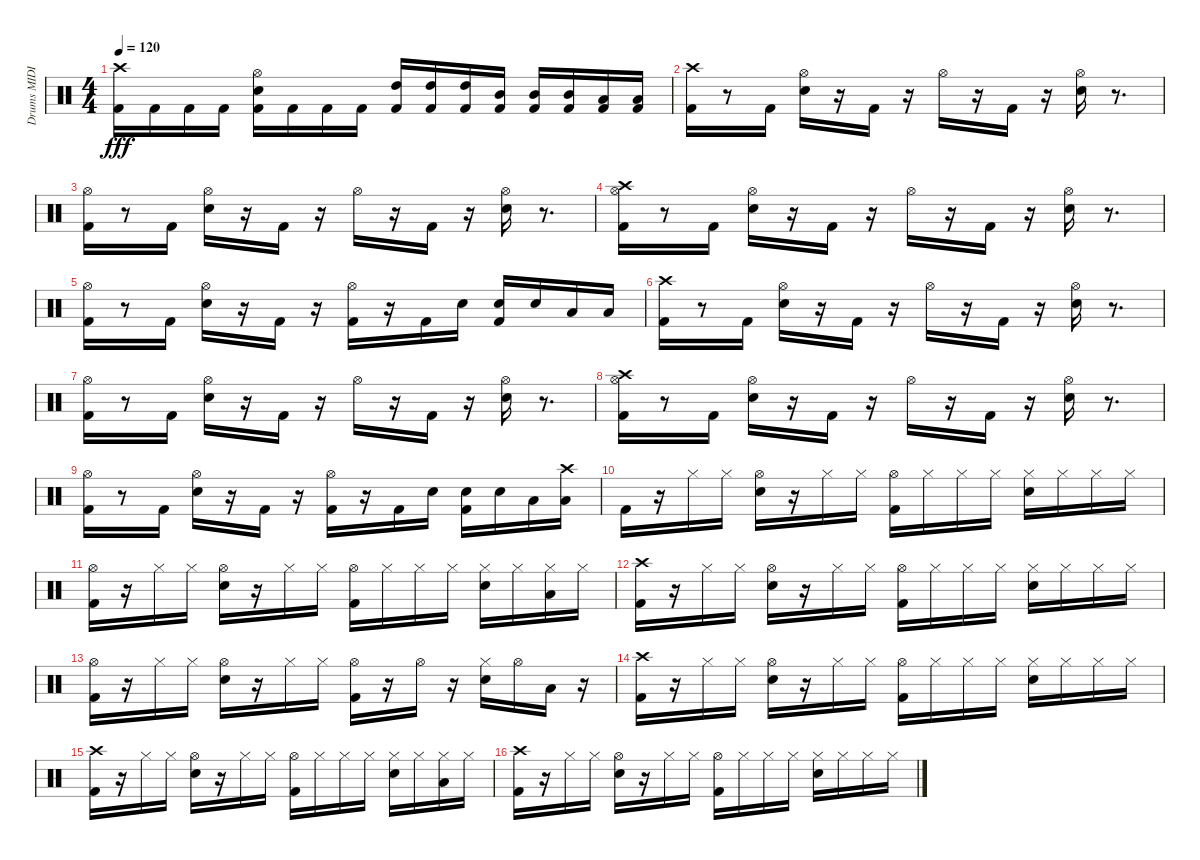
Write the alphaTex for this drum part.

\track ("Drums MIDI" "Drums MIDI") {instrument percussion}
\staff {score}
\articulation defaults
\ts (4 4)
\tempo 120
\clef neutral
\ks c
("Kick (hit) 2" "Crash high (hit)").16{dy fff} "Kick (hit) 2".16 "Kick (hit) 2".16 "Kick (hit) 2".16 ("Kick (hit) 2" "Snare (hit) 2" "Hi-Hat (open)").16 "Kick (hit) 2".16 "Kick (hit) 2".16 "Kick (hit) 2".16 ("Kick (hit) 2" "High Tom (hit)").16 ("Kick (hit) 2" "High Tom (hit)").16 ("Kick (hit) 2" "High Tom (hit)").16 ("Kick (hit) 2" "Mid Tom (hit)").16 ("Kick (hit) 2" "Mid Tom (hit)").16 ("Kick (hit) 2" "Mid Tom (hit)").16 ("Kick (hit) 2" "Low Tom (hit)").16 ("Kick (hit) 2" "Low Tom (hit)").16 |
("Kick (hit) 2" "Crash high (hit)").16 r.8 "Kick (hit) 2".16 ("Snare (hit) 2" "Hi-Hat (open)").16 r.16 "Kick (hit) 2".16 r.16 "Hi-Hat (open)".16 r.16 "Kick (hit) 2".16 r.16 ("Snare (hit) 2" "Hi-Hat (open)").16 r.8{d} |
("Kick (hit) 2" "Hi-Hat (open)").16 r.8 "Kick (hit) 2".16 ("Snare (hit) 2" "Hi-Hat (open)").16 r.16 "Kick (hit) 2".16 r.16 "Hi-Hat (open)".16 r.16 "Kick (hit) 2".16 r.16 ("Snare (hit) 2" "Hi-Hat (open)").16 r.8{d} |
("Kick (hit) 2" "Hi-Hat (open)" "Crash high (hit)").16 r.8 "Kick (hit) 2".16 ("Snare (hit) 2" "Hi-Hat (open)").16 r.16 "Kick (hit) 2".16 r.16 "Hi-Hat (open)".16 r.16 "Kick (hit) 2".16 r.16 ("Snare (hit) 2" "Hi-Hat (open)").16 r.8{d} |
("Kick (hit) 2" "Hi-Hat (open)").16 r.8 "Kick (hit) 2".16 ("Snare (hit) 2" "Hi-Hat (open)").16 r.16 "Kick (hit) 2".16 r.16 ("Kick (hit) 2" "Hi-Hat (open)").16 r.16 "Kick (hit) 2".16 "Snare (hit) 2".16 ("Kick (hit) 2" "Snare (hit) 2").16 "Snare (hit) 2".16 "Low Tom (hit)".16 "Low Tom (hit)".16 |
("Kick (hit) 2" "Crash high (hit)").16 r.8 "Kick (hit) 2".16 ("Snare (hit) 2" "Hi-Hat (open)").16 r.16 "Kick (hit) 2".16 r.16 "Hi-Hat (open)".16 r.16 "Kick (hit) 2".16 r.16 ("Snare (hit) 2" "Hi-Hat (open)").16 r.8{d} |
("Kick (hit) 2" "Hi-Hat (open)").16 r.8 "Kick (hit) 2".16 ("Snare (hit) 2" "Hi-Hat (open)").16 r.16 "Kick (hit) 2".16 r.16 "Hi-Hat (open)".16 r.16 "Kick (hit) 2".16 r.16 ("Snare (hit) 2" "Hi-Hat (open)").16 r.8{d} |
("Kick (hit) 2" "Hi-Hat (open)" "Crash high (hit)").16 r.8 "Kick (hit) 2".16 ("Snare (hit) 2" "Hi-Hat (open)").16 r.16 "Kick (hit) 2".16 r.16 "Hi-Hat (open)".16 r.16 "Kick (hit) 2".16 r.16 ("Snare (hit) 2" "Hi-Hat (open)").16 r.8{d} |
("Kick (hit) 2" "Hi-Hat (open)").16 r.8 "Kick (hit) 2".16 ("Snare (hit) 2" "Hi-Hat (open)").16 r.16 "Kick (hit) 2".16 r.16 ("Kick (hit) 2" "Hi-Hat (open)").16 r.16 "Kick (hit) 2".16 "Snare (hit) 2".16 ("Kick (hit) 2" "Snare (hit) 2").16 "Snare (hit) 2".16 "Low Tom (hit)".16 ("Low Tom (hit)" "Crash high (hit)").16 |
"Kick (hit) 2".16 r.16 "Hi-Hat (closed)".16 "Hi-Hat (closed)".16 ("Snare (hit) 2" "Hi-Hat (open)").16 r.16 "Hi-Hat (closed)".16 "Hi-Hat (closed)".16 ("Kick (hit) 2" "Hi-Hat (open)").16 "Hi-Hat (closed)".16 "Hi-Hat (closed)".16 "Hi-Hat (closed)".16 ("Snare (hit) 2" "Hi-Hat (closed)").16 "Hi-Hat (closed)".16 "Hi-Hat (closed)".16 "Hi-Hat (closed)".16 |
("Kick (hit) 2" "Hi-Hat (open)").16 r.16 "Hi-Hat (closed)".16 "Hi-Hat (closed)".16 ("Snare (hit) 2" "Hi-Hat (open)").16 r.16 "Hi-Hat (closed)".16 "Hi-Hat (closed)".16 ("Kick (hit) 2" "Hi-Hat (open)").16 "Hi-Hat (closed)".16 "Hi-Hat (closed)".16 "Hi-Hat (closed)".16 ("Snare (hit) 2" "Hi-Hat (closed)").16 "Hi-Hat (closed)".16 ("Hi-Hat (closed)" "Low Tom (hit)").16 "Hi-Hat (closed)".16 |
("Kick (hit) 2" "Crash high (hit)").16 r.16 "Hi-Hat (closed)".16 "Hi-Hat (closed)".16 ("Snare (hit) 2" "Hi-Hat (open)").16 r.16 "Hi-Hat (closed)".16 "Hi-Hat (closed)".16 ("Kick (hit) 2" "Hi-Hat (open)").16 "Hi-Hat (closed)".16 "Hi-Hat (closed)".16 "Hi-Hat (closed)".16 ("Snare (hit) 2" "Hi-Hat (closed)").16 "Hi-Hat (closed)".16 "Hi-Hat (closed)".16 "Hi-Hat (closed)".16 |
("Kick (hit) 2" "Hi-Hat (open)").16 r.16 "Hi-Hat (closed)".16 "Hi-Hat (closed)".16 ("Snare (hit) 2" "Hi-Hat (open)").16 r.16 "Hi-Hat (closed)".16 "Hi-Hat (closed)".16 ("Kick (hit) 2" "Hi-Hat (open)").16 r.16 "Hi-Hat (open)".16 r.16 ("Snare (hit) 2" "Hi-Hat (closed)").16 "Hi-Hat (open)".16 "Low Tom (hit)".16 r.16 |
("Kick (hit) 2" "Crash high (hit)").16 r.16 "Hi-Hat (closed)".16 "Hi-Hat (closed)".16 ("Snare (hit) 2" "Hi-Hat (open)").16 r.16 "Hi-Hat (closed)".16 "Hi-Hat (closed)".16 ("Kick (hit) 2" "Hi-Hat (open)").16 "Hi-Hat (closed)".16 "Hi-Hat (closed)".16 "Hi-Hat (closed)".16 ("Snare (hit) 2" "Hi-Hat (closed)").16 "Hi-Hat (closed)".16 "Hi-Hat (closed)".16 "Hi-Hat (closed)".16 |
("Kick (hit) 2" "Crash high (hit)").16 r.16 "Hi-Hat (closed)".16 "Hi-Hat (closed)".16 ("Snare (hit) 2" "Hi-Hat (open)").16 r.16 "Hi-Hat (closed)".16 "Hi-Hat (closed)".16 ("Kick (hit) 2" "Hi-Hat (open)").16 "Hi-Hat (closed)".16 "Hi-Hat (closed)".16 "Hi-Hat (closed)".16 ("Snare (hit) 2" "Hi-Hat (closed)").16 "Hi-Hat (closed)".16 ("Hi-Hat (closed)" "Low Tom (hit)").16 "Hi-Hat (closed)".16 |
("Kick (hit) 2" "Crash high (hit)").16 r.16 "Hi-Hat (closed)".16 "Hi-Hat (closed)".16 ("Snare (hit) 2" "Hi-Hat (open)").16 r.16 "Hi-Hat (closed)".16 "Hi-Hat (closed)".16 ("Kick (hit) 2" "Hi-Hat (open)").16 "Hi-Hat (closed)".16 "Hi-Hat (closed)".16 "Hi-Hat (closed)".16 ("Snare (hit) 2" "Hi-Hat (closed)").16 "Hi-Hat (closed)".16 "Hi-Hat (closed)".16 "Hi-Hat (closed)".16
